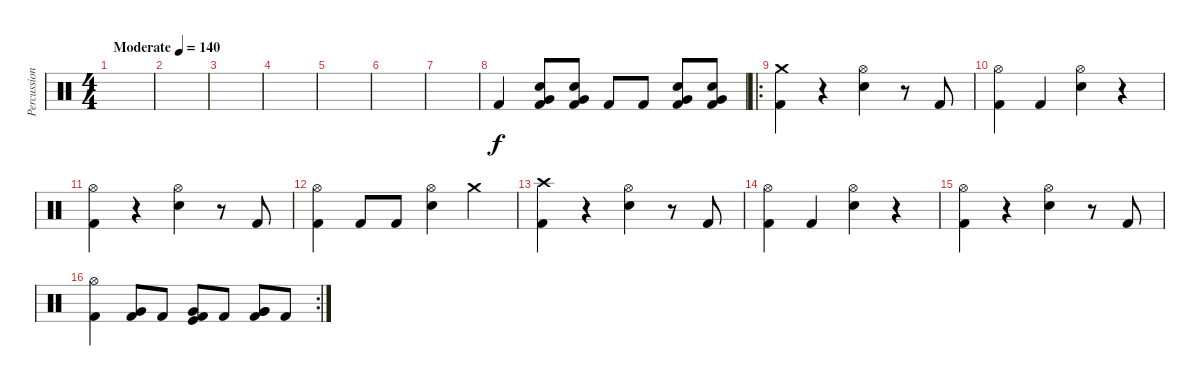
\track ("Percussion" "Percussion") {instrument percussion}
\staff {score}
\articulation defaults
\ts (4 4)
\tempo (140 "Moderate")
\clef neutral
\ks c
|
|
|
|
|
|
|
"Kick (hit) 2".4 ("Electric Snare (hit)" "Very Low Tom (hit)" "Kick (hit) 2").8 ("Electric Snare (hit)" "Very Low Tom (hit)" "Kick (hit) 2").8 "Kick (hit) 2".8 "Kick (hit) 2".8 ("Electric Snare (hit)" "Very Low Tom (hit)" "Kick (hit) 2").8 ("Electric Snare (hit)" "Very Low Tom (hit)" "Kick (hit) 2").8 |
\ro
("Crash medium (hit)" "Kick (hit) 2").4 r.4 ("Hi-Hat (open)" "Electric Snare (hit)").4 r.8 "Kick (hit) 2".8 |
("Hi-Hat (open)" "Kick (hit) 2").4 "Kick (hit) 2".4 ("Hi-Hat (open)" "Electric Snare (hit)").4 r.4 |
("Hi-Hat (open)" "Kick (hit) 2").4 r.4 ("Hi-Hat (open)" "Electric Snare (hit)").4 r.8 "Kick (hit) 2".8 |
("Hi-Hat (open)" "Kick (hit) 2").4 "Kick (hit) 2".8 "Kick (hit) 2".8 ("Hi-Hat (open)" "Electric Snare (hit)").4 "Crash medium (hit)".4 |
("Crash high (hit)" "Kick (hit) 2").4 r.4 ("Hi-Hat (open)" "Electric Snare (hit)").4 r.8 "Kick (hit) 2".8 |
("Hi-Hat (open)" "Kick (hit) 2").4 "Kick (hit) 2".4 ("Hi-Hat (open)" "Electric Snare (hit)").4 r.4 |
("Hi-Hat (open)" "Kick (hit) 2").4 r.4 ("Hi-Hat (open)" "Electric Snare (hit)").4 r.8 "Kick (hit) 2".8 |
\rc 2
("Hi-Hat (open)" "Kick (hit) 2").4 ("Very Low Tom (hit)" "Kick (hit) 2").8 "Kick (hit) 2".8 ("Kick (hit)" "Very Low Tom (hit)" "Kick (hit) 2").8 "Kick (hit) 2".8 ("Very Low Tom (hit)" "Very Low Tom (hit)" "Kick (hit) 2").8 "Kick (hit) 2".8
